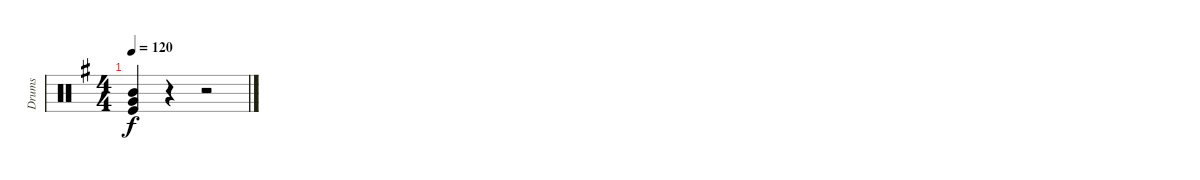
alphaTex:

\track ("Drums" "Drums") {instrument percussion}
\staff {score}
\articulation defaults
\ts (4 4)
\tempo 120
\clef neutral
\ks g
("Mid Tom (hit)" "Very Low Tom (hit)" "Kick (hit)").4{dy f} r.4 r.2
